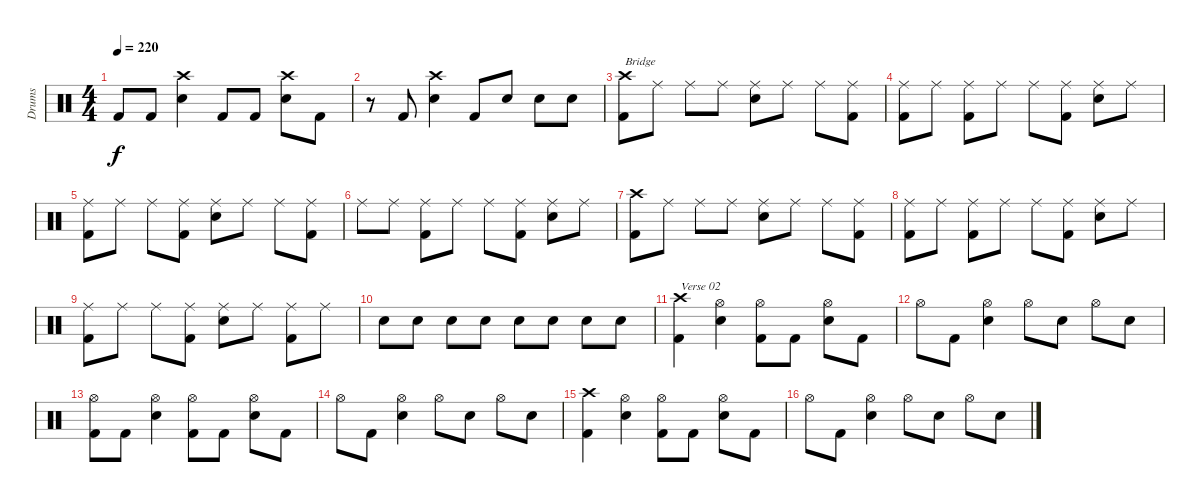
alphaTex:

\track ("Drums" "Drums") {instrument percussion}
\staff {score}
\articulation defaults
\ts (4 4)
\tempo 220
\clef neutral
\ks c "Kick (hit) 2".8{dy f} "Kick (hit) 2".8
("Crash high (hit)" "Snare (hit) 2").4 "Kick (hit) 2".8 "Kick (hit) 2".8 ("Crash high (hit)" "Snare (hit) 2").8 "Kick (hit) 2".8 |
r.8 "Kick (hit) 2".8 ("Crash high (hit)" "Snare (hit) 2").4 "Kick (hit) 2".8 "Snare (hit) 2".8 "Snare (hit) 2".8 "Snare (hit) 2".8 |
("Crash high (hit)" "Kick (hit) 2").8{txt "Bridge"} "Ride (middle)".8 "Ride (middle)".8 "Ride (middle)".8 ("Ride (middle)" "Snare (hit) 2").8 "Ride (middle)".8 "Ride (middle)".8 ("Ride (middle)" "Kick (hit) 2").8 |
("Ride (middle)" "Kick (hit) 2").8 "Ride (middle)".8 ("Ride (middle)" "Kick (hit) 2").8 "Ride (middle)".8 "Ride (middle)".8 ("Ride (middle)" "Kick (hit) 2").8 ("Ride (middle)" "Snare (hit) 2").8 "Ride (middle)".8 |
("Ride (middle)" "Kick (hit) 2").8 "Ride (middle)".8 "Ride (middle)".8 ("Ride (middle)" "Kick (hit) 2").8 ("Ride (middle)" "Snare (hit) 2").8 "Ride (middle)".8 "Ride (middle)".8 ("Ride (middle)" "Kick (hit) 2").8 |
"Ride (middle)".8 "Ride (middle)".8 ("Ride (middle)" "Kick (hit) 2").8 "Ride (middle)".8 "Ride (middle)".8 ("Ride (middle)" "Kick (hit) 2").8 ("Ride (middle)" "Snare (hit) 2").8 "Ride (middle)".8 |
("Crash high (hit)" "Kick (hit) 2").8 "Ride (middle)".8 "Ride (middle)".8 "Ride (middle)".8 ("Ride (middle)" "Snare (hit) 2").8 "Ride (middle)".8 "Ride (middle)".8 ("Ride (middle)" "Kick (hit) 2").8 |
("Ride (middle)" "Kick (hit) 2").8 "Ride (middle)".8 ("Ride (middle)" "Kick (hit) 2").8 "Ride (middle)".8 "Ride (middle)".8 ("Ride (middle)" "Kick (hit) 2").8 ("Ride (middle)" "Snare (hit) 2").8 "Ride (middle)".8 |
("Ride (middle)" "Kick (hit) 2").8 "Ride (middle)".8 "Ride (middle)".8 ("Ride (middle)" "Kick (hit) 2").8 ("Ride (middle)" "Snare (hit) 2").8 "Ride (middle)".8 ("Ride (middle)" "Kick (hit) 2").8 "Ride (middle)".8 |
"Snare (hit) 2".8 "Snare (hit) 2".8 "Snare (hit) 2".8 "Snare (hit) 2".8 "Snare (hit) 2".8 "Snare (hit) 2".8 "Snare (hit) 2".8 "Snare (hit) 2".8 |
("Crash high (hit)" "Kick (hit) 2").4{txt "Verse 02"} ("Hi-Hat (open)" "Snare (hit) 2").4 ("Hi-Hat (open)" "Kick (hit) 2").8 "Kick (hit) 2".8 ("Hi-Hat (open)" "Snare (hit) 2").8 "Kick (hit) 2".8 |
"Hi-Hat (open)".8 "Kick (hit) 2".8 ("Hi-Hat (open)" "Snare (hit) 2").4 "Hi-Hat (open)".8 "Snare (hit) 2".8 "Hi-Hat (open)".8 "Snare (hit) 2".8 |
("Hi-Hat (open)" "Kick (hit) 2").8 "Kick (hit) 2".8 ("Hi-Hat (open)" "Snare (hit) 2").4 ("Hi-Hat (open)" "Kick (hit) 2").8 "Kick (hit) 2".8 ("Hi-Hat (open)" "Snare (hit) 2").8 "Kick (hit) 2".8 |
"Hi-Hat (open)".8 "Kick (hit) 2".8 ("Hi-Hat (open)" "Snare (hit) 2").4 "Hi-Hat (open)".8 "Snare (hit) 2".8 "Hi-Hat (open)".8 "Snare (hit) 2".8 |
("Crash high (hit)" "Kick (hit) 2").4 ("Hi-Hat (open)" "Snare (hit) 2").4 ("Hi-Hat (open)" "Kick (hit) 2").8 "Kick (hit) 2".8 ("Hi-Hat (open)" "Snare (hit) 2").8 "Kick (hit) 2".8 |
"Hi-Hat (open)".8 "Kick (hit) 2".8 ("Hi-Hat (open)" "Snare (hit) 2").4 "Hi-Hat (open)".8 "Snare (hit) 2".8 "Hi-Hat (open)".8 "Snare (hit) 2".8
